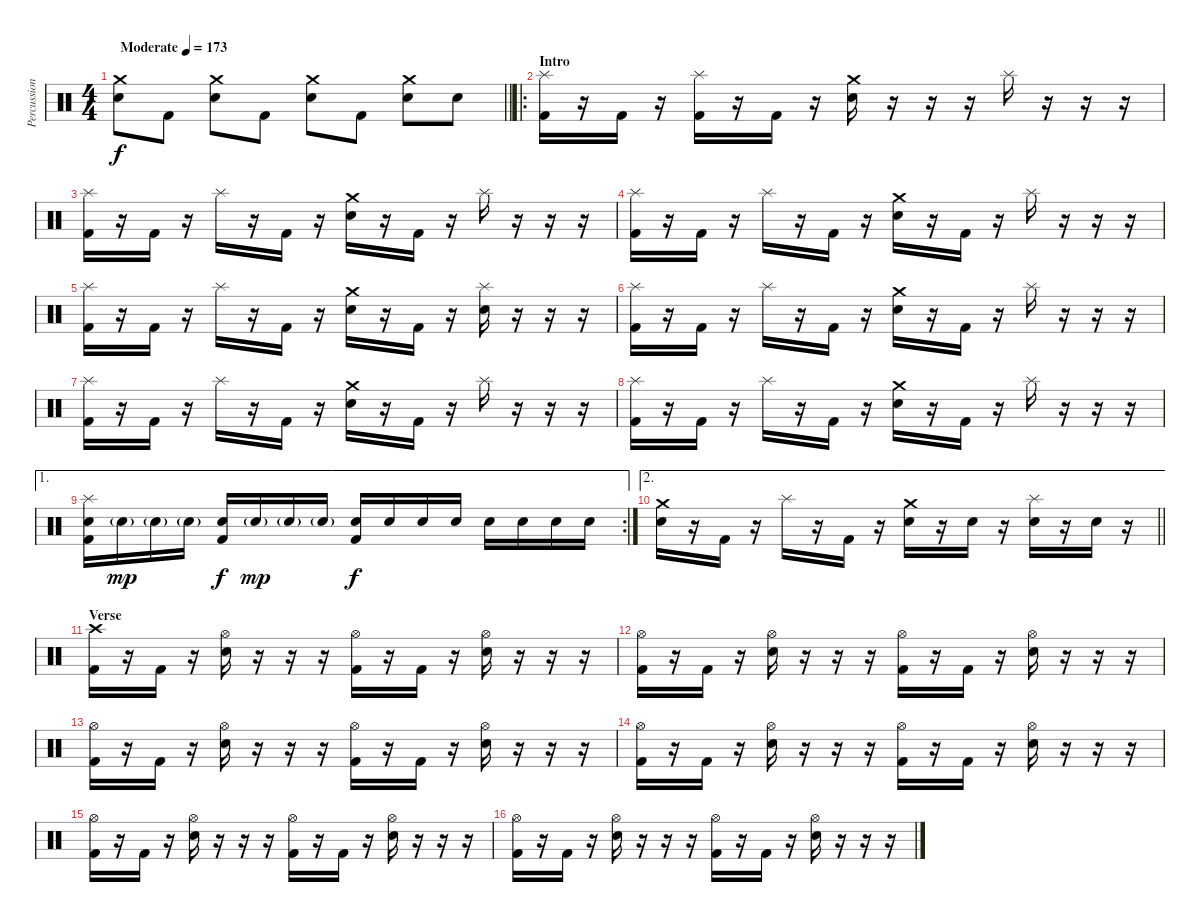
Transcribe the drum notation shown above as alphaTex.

\track ("Percussion" "Percussion") {instrument percussion}
\staff {score}
\articulation defaults
\ts (4 4)
\tempo (173 "Moderate")
\clef neutral
\barLineRight lightlight
\ks c
("Crash medium (hit)" "Electric Snare (hit)").8{dy f} "Kick (hit) 2".8 ("Crash medium (hit)" "Electric Snare (hit)").8 "Kick (hit) 2".8 ("Crash medium (hit)" "Electric Snare (hit)").8 "Kick (hit) 2".8 ("Crash medium (hit)" "Electric Snare (hit)").8 "Electric Snare (hit)".8 |
\ro
\section ("" "Intro")
("Splash (hit)" "Kick (hit) 2").16 r.16 "Kick (hit) 2".16 r.16 ("Splash (hit)" "Kick (hit) 2").16 r.16 "Kick (hit) 2".16 r.16 ("Crash medium (hit)" "Electric Snare (hit)").16 r.16 r.16 r.16 "Splash (hit)".16 r.16 r.16 r.16 |
("Splash (hit)" "Kick (hit) 2").16 r.16 "Kick (hit) 2".16 r.16 "Splash (hit)".16 r.16 "Kick (hit) 2".16 r.16 ("Crash medium (hit)" "Electric Snare (hit)").16 r.16 "Kick (hit) 2".16 r.16 "Splash (hit)".16 r.16 r.16 r.16 |
("Splash (hit)" "Kick (hit) 2").16 r.16 "Kick (hit) 2".16 r.16 "Splash (hit)".16 r.16 "Kick (hit) 2".16 r.16 ("Crash medium (hit)" "Electric Snare (hit)").16 r.16 "Kick (hit) 2".16 r.16 "Splash (hit)".16 r.16 r.16 r.16 |
("Splash (hit)" "Kick (hit) 2").16 r.16 "Kick (hit) 2".16 r.16 "Splash (hit)".16 r.16 "Kick (hit) 2".16 r.16 ("Crash medium (hit)" "Electric Snare (hit)").16 r.16 "Kick (hit) 2".16 r.16 ("Splash (hit)" "Electric Snare (hit)").16 r.16 r.16 r.16 |
("Splash (hit)" "Kick (hit) 2").16 r.16 "Kick (hit) 2".16 r.16 "Splash (hit)".16 r.16 "Kick (hit) 2".16 r.16 ("Crash medium (hit)" "Electric Snare (hit)").16 r.16 "Kick (hit) 2".16 r.16 "Splash (hit)".16 r.16 r.16 r.16 |
("Splash (hit)" "Kick (hit) 2").16 r.16 "Kick (hit) 2".16 r.16 "Splash (hit)".16 r.16 "Kick (hit) 2".16 r.16 ("Crash medium (hit)" "Electric Snare (hit)").16 r.16 "Kick (hit) 2".16 r.16 "Splash (hit)".16 r.16 r.16 r.16 |
("Splash (hit)" "Kick (hit) 2").16 r.16 "Kick (hit) 2".16 r.16 "Splash (hit)".16 r.16 "Kick (hit) 2".16 r.16 ("Crash medium (hit)" "Electric Snare (hit)").16 r.16 "Kick (hit) 2".16 r.16 "Splash (hit)".16 r.16 r.16 r.16 |
\ae 1
\rc 2
("Splash (hit)" "Electric Snare (hit)" "Kick (hit) 2").16 "Electric Snare (hit)"{g}.16{dy mp} "Electric Snare (hit)"{g}.16 "Electric Snare (hit)"{g}.16 ("Electric Snare (hit)" "Kick (hit) 2").16{dy f} "Electric Snare (hit)"{g}.16{dy mp} "Electric Snare (hit)"{g}.16 "Electric Snare (hit)"{g}.16 ("Electric Snare (hit)" "Kick (hit) 2").16{dy f} "Electric Snare (hit)".16 "Electric Snare (hit)".16 "Electric Snare (hit)".16 "Electric Snare (hit)".16 "Electric Snare (hit)".16 "Electric Snare (hit)".16 "Electric Snare (hit)".16 |
\ae 2
\barLineRight lightlight
("Crash medium (hit)" "Electric Snare (hit)").16 r.16 "Kick (hit) 2".16 r.16 "Splash (hit)".16 r.16 "Kick (hit) 2".16 r.16 ("Crash medium (hit)" "Electric Snare (hit)").16 r.16 "Electric Snare (hit)".16 r.16 ("Splash (hit)" "Electric Snare (hit)").16 r.16 "Electric Snare (hit)".16 r.16 |
\section ("" "Verse")
("Crash high (hit)" "Kick (hit) 2").16 r.16 "Kick (hit) 2".16 r.16 ("Hi-Hat (open)" "Electric Snare (hit)").16 r.16 r.16 r.16 ("Hi-Hat (open)" "Kick (hit) 2").16 r.16 "Kick (hit) 2".16 r.16 ("Hi-Hat (open)" "Electric Snare (hit)").16 r.16 r.16 r.16 |
("Hi-Hat (open)" "Kick (hit) 2").16 r.16 "Kick (hit) 2".16 r.16 ("Hi-Hat (open)" "Electric Snare (hit)").16 r.16 r.16 r.16 ("Hi-Hat (open)" "Kick (hit) 2").16 r.16 "Kick (hit) 2".16 r.16 ("Hi-Hat (open)" "Electric Snare (hit)").16 r.16 r.16 r.16 |
("Hi-Hat (open)" "Kick (hit) 2").16 r.16 "Kick (hit) 2".16 r.16 ("Hi-Hat (open)" "Electric Snare (hit)").16 r.16 r.16 r.16 ("Hi-Hat (open)" "Kick (hit) 2").16 r.16 "Kick (hit) 2".16 r.16 ("Hi-Hat (open)" "Electric Snare (hit)").16 r.16 r.16 r.16 |
("Hi-Hat (open)" "Kick (hit) 2").16 r.16 "Kick (hit) 2".16 r.16 ("Hi-Hat (open)" "Electric Snare (hit)").16 r.16 r.16 r.16 ("Hi-Hat (open)" "Kick (hit) 2").16 r.16 "Kick (hit) 2".16 r.16 ("Hi-Hat (open)" "Electric Snare (hit)").16 r.16 r.16 r.16 |
("Hi-Hat (open)" "Kick (hit) 2").16 r.16 "Kick (hit) 2".16 r.16 ("Hi-Hat (open)" "Electric Snare (hit)").16 r.16 r.16 r.16 ("Hi-Hat (open)" "Kick (hit) 2").16 r.16 "Kick (hit) 2".16 r.16 ("Hi-Hat (open)" "Electric Snare (hit)").16 r.16 r.16 r.16 |
("Hi-Hat (open)" "Kick (hit) 2").16 r.16 "Kick (hit) 2".16 r.16 ("Hi-Hat (open)" "Electric Snare (hit)").16 r.16 r.16 r.16 ("Hi-Hat (open)" "Kick (hit) 2").16 r.16 "Kick (hit) 2".16 r.16 ("Hi-Hat (open)" "Electric Snare (hit)").16 r.16 r.16 r.16
